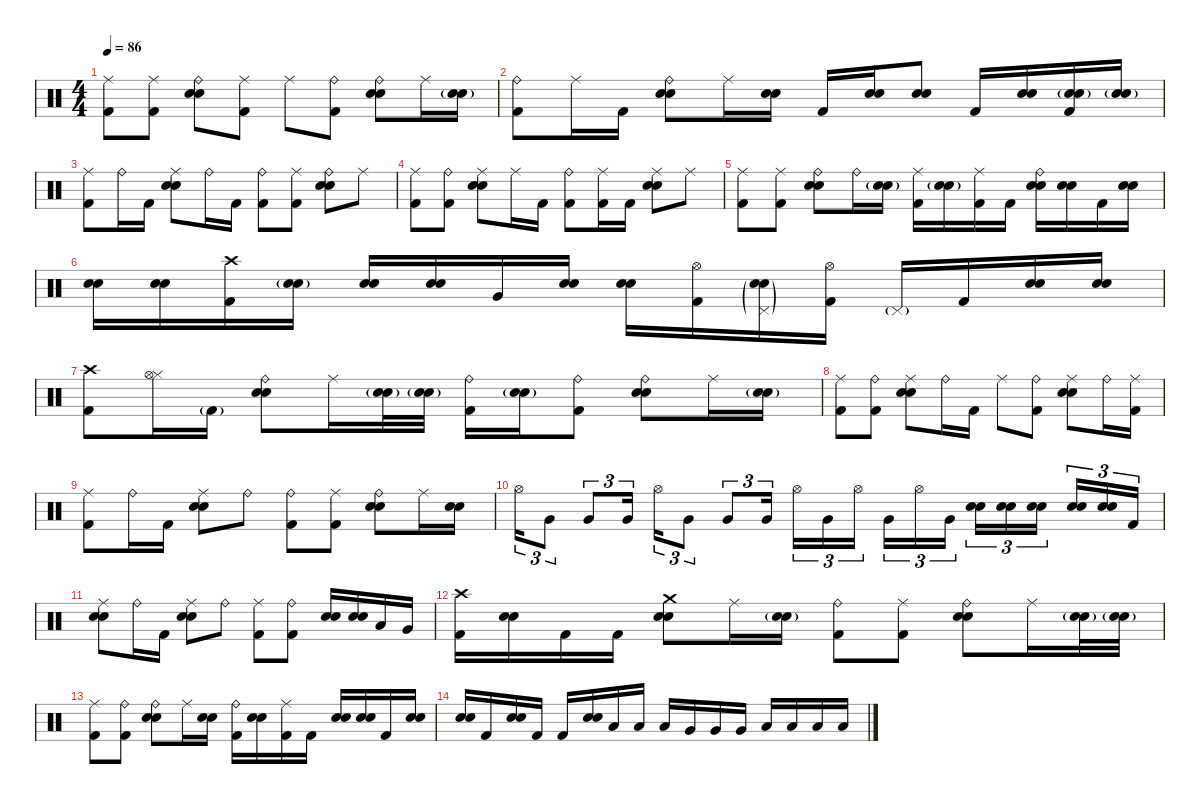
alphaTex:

\defaultSystemsLayout 4
\hideDynamics
\bracketExtendMode nobrackets
\singleTrackTrackNamePolicy hidden
\multiTrackTrackNamePolicy hidden
\firstSystemTrackNameMode fullname
\firstSystemTrackNameOrientation horizontal
\otherSystemsTrackNameOrientation horizontal
\track ("Batterie" "drm.") {instrument percussion}
\staff {score}
\articulation defaults
\ts (4 4)
\tempo 86
\clef neutral
\ks c
("Ride (middle)" "Kick (hit) 2").8{dy mf beam Down} ("Ride (middle)" "Kick (hit) 2").8{beam Down} ("Ride (bell)" "Snare (hit) 2" "Snare (hit) 2").8{beam Down} ("Ride (middle)" "Kick (hit) 2").8{beam Down} "Ride (middle)".8{beam Down} ("Ride (bell)" "Kick (hit) 2").8{beam Down} ("Ride (bell)" "Snare (hit) 2" "Snare (hit) 2").8{beam Down} "Ride (middle)".16{beam Down} ("Snare (hit) 2"{g} "Snare (hit) 2"{g}).16{dy mp beam Down} |
("Ride (bell)" "Kick (hit) 2").8{dy mf beam Down} "Ride (middle)".16{beam Down} "Kick (hit) 2".16{beam Down} ("Ride (bell)" "Snare (hit) 2" "Snare (hit) 2").8{beam Down} "Ride (middle)".16{beam Down} ("Snare (hit) 2" "Snare (hit) 2").16{beam Down} "Kick (hit) 2".16{beam Up} ("Snare (hit) 2" "Snare (hit) 2").16{beam Up} ("Snare (hit) 2" "Snare (hit) 2").8{beam Up} "Kick (hit) 2".16{beam Up} ("Snare (hit) 2" "Snare (hit) 2").16{beam Up} ("Snare (hit) 2"{g} "Snare (hit) 2"{g} "Kick (hit) 2").16{beam Up} ("Snare (hit) 2"{g} "Snare (hit) 2"{g}).16{dy f beam Up} |
("Ride (middle)" "Kick (hit) 2").8{dy mf beam Down} "Ride (bell)".16{beam Down} "Kick (hit) 2".16{beam Down} ("Ride (middle)" "Snare (hit) 2" "Snare (hit) 2").8{beam Down} "Ride (bell)".16{beam Down} "Kick (hit) 2".16{beam Down} ("Ride (bell)" "Kick (hit) 2").8{beam Down} ("Ride (middle)" "Kick (hit) 2").8{beam Down} ("Ride (bell)" "Snare (hit) 2" "Snare (hit) 2").8{beam Down} "Ride (middle)".8{beam Down} |
("Ride (middle)" "Kick (hit) 2").8{beam Down} ("Ride (bell)" "Kick (hit) 2").8{beam Down} ("Ride (middle)" "Snare (hit) 2" "Snare (hit) 2").8{beam Down} "Ride (middle)".16{beam Down} "Kick (hit) 2".16{beam Down} ("Ride (bell)" "Kick (hit) 2").8{beam Down} ("Ride (middle)" "Kick (hit) 2").16{beam Down} "Kick (hit) 2".16{beam Down} ("Ride (middle)" "Snare (hit) 2" "Snare (hit) 2").8{beam Down} "Ride (middle)".8{beam Down} |
("Ride (middle)" "Kick (hit) 2").8{beam Down} ("Ride (middle)" "Kick (hit) 2").8{beam Down} ("Ride (bell)" "Snare (hit) 2" "Snare (hit) 2").8{beam Down} "Ride (bell)".16{beam Down} ("Snare (hit) 2"{g} "Snare (hit) 2"{g}).16{dy f beam Down} ("Ride (middle)" "Kick (hit) 2").16{dy mf beam Down} ("Snare (hit) 2"{g} "Snare (hit) 2"{g}).16{dy f beam Down} ("Ride (middle)" "Kick (hit) 2").16{dy mf beam Down} "Kick (hit) 2".16{beam Down} ("Ride (bell)" "Snare (hit) 2" "Snare (hit) 2").16{beam Down} ("Snare (hit) 2" "Snare (hit) 2").16{beam Down} "Kick (hit) 2".16{beam Down} ("Snare (hit) 2" "Snare (hit) 2").16{beam Down} |
("Snare (hit) 2" "Snare (hit) 2").16{beam Down} ("Snare (hit) 2" "Snare (hit) 2").16{beam Down} ("Crash high (hit)" "Kick (hit) 2").16{beam Down} ("Snare (hit) 2"{g} "Snare (hit) 2"{g}).16{dy f beam Down} ("Snare (hit) 2" "Snare (hit) 2").16{dy mf beam Up} ("Snare (hit) 2" "Snare (hit) 2").16{beam Up} "Very Low Tom (hit)".16{dy ff beam Up} ("Snare (hit) 2" "Snare (hit) 2").16{dy mf beam Up} ("Snare (hit) 2" "Snare (hit) 2").16{beam Down} ("Hi-Hat (open)" "Kick (hit) 2").16{beam Down} ("Pedal Hi-Hat (hit)"{g} "Snare (hit) 2"{g} "Snare (hit) 2"{g}).16{dy f beam Down} ("Hi-Hat (open)" "Kick (hit) 2").16{dy mf beam Down} "Pedal Hi-Hat (hit)"{g}.16{dy f beam Up} "Kick (hit) 2".16{dy mf beam Up} ("Snare (hit) 2" "Snare (hit) 2").16{beam Up} ("Snare (hit) 2" "Snare (hit) 2").16{beam Up} |
("Crash high (hit)" "Kick (hit) 2").8{beam Down} ("Hi-Hat (closed)" "Hi-Hat (open)").16{dy f beam Down} "Kick (hit) 2"{g}.16{beam Down} ("Ride (bell)" "Snare (hit) 2" "Snare (hit) 2").8{dy mf beam Down} "Ride (middle)".16{beam Down} ("Snare (hit) 2"{g} "Snare (hit) 2"{g}).32{beam Down} ("Snare (hit) 2"{g} "Snare (hit) 2"{g}).32{beam Down} ("Ride (bell)" "Kick (hit) 2").16{beam Down} ("Snare (hit) 2"{g} "Snare (hit) 2"{g}).16{beam Down} ("Ride (bell)" "Kick (hit) 2").8{beam Down} ("Ride (bell)" "Snare (hit) 2" "Snare (hit) 2").8{beam Down} "Ride (middle)".16{beam Down} ("Snare (hit) 2"{g} "Snare (hit) 2"{g}).16{dy f beam Down} |
("Ride (middle)" "Kick (hit) 2").8{dy mf beam Down} ("Ride (bell)" "Kick (hit) 2").8{beam Down} ("Ride (middle)" "Snare (hit) 2" "Snare (hit) 2").8{beam Down} "Ride (bell)".16{beam Down} "Kick (hit) 2".16{beam Down} "Ride (middle)".8{beam Down} ("Ride (bell)" "Kick (hit) 2").8{beam Down} ("Ride (middle)" "Snare (hit) 2" "Snare (hit) 2").8{beam Down} "Ride (bell)".16{beam Down} ("Ride (middle)" "Kick (hit) 2").16{beam Down} |
("Ride (middle)" "Kick (hit) 2").8{beam Down} "Ride (bell)".16{beam Down} "Kick (hit) 2".16{beam Down} ("Ride (middle)" "Snare (hit) 2" "Snare (hit) 2").8{beam Down} "Ride (bell)".8{beam Down} ("Ride (bell)" "Kick (hit) 2").8{beam Down} ("Ride (middle)" "Kick (hit) 2").8{beam Down} ("Ride (bell)" "Snare (hit) 2" "Snare (hit) 2").8{beam Down} "Ride (middle)".16{beam Down} ("Snare (hit) 2" "Snare (hit) 2").16{beam Down} |
"Hi-Hat (open)".16{tu (3 2) dy f beam Down} "Very Low Tom (hit)".8{tu (3 2) beam Down} "Very Low Tom (hit)".8{tu (3 2) beam Up} "Very Low Tom (hit)".16{tu (3 2) beam Up} "Hi-Hat (open)".16{tu (3 2) beam Down} "Very Low Tom (hit)".8{tu (3 2) beam Down} "Very Low Tom (hit)".8{tu (3 2) beam Up} "Very Low Tom (hit)".16{tu (3 2) beam Up} "Hi-Hat (open)".16{tu (3 2) beam Down} "Very Low Tom (hit)".16{tu (3 2) beam Down} "Hi-Hat (open)".16{tu (3 2) beam Down} "Very Low Tom (hit)".16{tu (3 2) beam Down} "Hi-Hat (open)".16{tu (3 2) beam Down} "Very Low Tom (hit)".16{tu (3 2) beam Down} ("Snare (hit) 2" "Snare (hit) 2").16{tu (3 2) dy mf beam Down} ("Snare (hit) 2" "Snare (hit) 2").16{tu (3 2) beam Down} ("Snare (hit) 2" "Snare (hit) 2").16{tu (3 2) beam Down} ("Snare (hit) 2" "Snare (hit) 2").16{tu (3 2) beam Up} ("Snare (hit) 2" "Snare (hit) 2").16{tu (3 2) beam Up} "Kick (hit) 2".16{tu (3 2) beam Up} |
("Ride (middle)" "Snare (hit) 2" "Snare (hit) 2").8{beam Down} "Ride (bell)".16{beam Down} "Kick (hit) 2".16{beam Down} ("Ride (middle)" "Snare (hit) 2" "Snare (hit) 2").8{beam Down} "Ride (bell)".8{beam Down} ("Ride (middle)" "Kick (hit) 2").8{beam Down} ("Ride (bell)" "Kick (hit) 2").8{beam Down} ("Snare (hit) 2" "Snare (hit) 2").16{beam Up} ("Snare (hit) 2" "Snare (hit) 2").16{beam Up} "Low Tom (hit)".16{dy f beam Up} "Very Low Tom (hit)".16{beam Up} |
("Crash high (hit)" "Kick (hit) 2").16{dy mf beam Down} ("Snare (hit) 2" "Snare (hit) 2").16{beam Down} "Kick (hit) 2".16{beam Down} "Kick (hit) 2".16{beam Down} ("Crash medium (hit)" "Snare (hit) 2" "Snare (hit) 2").8{beam Down} "Ride (middle)".16{beam Down} ("Snare (hit) 2"{g} "Snare (hit) 2"{g}).16{dy f beam Down} ("Ride (bell)" "Kick (hit) 2").8{dy mf beam Down} ("Ride (middle)" "Kick (hit) 2").8{beam Down} ("Ride (bell)" "Snare (hit) 2" "Snare (hit) 2").8{beam Down} "Ride (middle)".16{beam Down} ("Snare (hit) 2"{g} "Snare (hit) 2"{g}).32{beam Down} ("Snare (hit) 2"{g} "Snare (hit) 2"{g}).32{beam Down} |
("Ride (middle)" "Kick (hit) 2").8{beam Down} ("Ride (bell)" "Kick (hit) 2").8{beam Down} ("Ride (bell)" "Snare (hit) 2" "Snare (hit) 2").8{beam Down} "Ride (middle)".16{beam Down} ("Snare (hit) 2" "Snare (hit) 2").16{beam Down} ("Ride (bell)" "Kick (hit) 2").16{beam Down} ("Snare (hit) 2" "Snare (hit) 2").16{beam Down} ("Ride (middle)" "Kick (hit) 2").16{beam Down} "Kick (hit) 2".16{beam Down} ("Snare (hit) 2" "Snare (hit) 2").16{beam Up} ("Snare (hit) 2" "Snare (hit) 2").16{beam Up} "Kick (hit) 2".16{beam Up} ("Snare (hit) 2" "Snare (hit) 2").16{beam Up} |
("Snare (hit) 2" "Snare (hit) 2").16{beam Up} "Kick (hit) 2".16{beam Up} ("Snare (hit) 2" "Snare (hit) 2").16{beam Up} "Kick (hit) 2".16{beam Up} "Kick (hit) 2".16{beam Up} ("Snare (hit) 2" "Snare (hit) 2").16{beam Up} "Low Tom (hit)".16{dy f beam Up} "Low Tom (hit)".16{beam Up} "Low Tom (hit)".16{beam Up} "Very Low Tom (hit)".16{beam Up} "Very Low Tom (hit)".16{beam Up} "Very Low Tom (hit)".16{beam Up} "Low Floor Tom (hit)".16{beam Up} "Low Floor Tom (hit)".16{beam Up} "Low Floor Tom (hit)".16{beam Up} "Low Floor Tom (hit)".16{beam Up}
